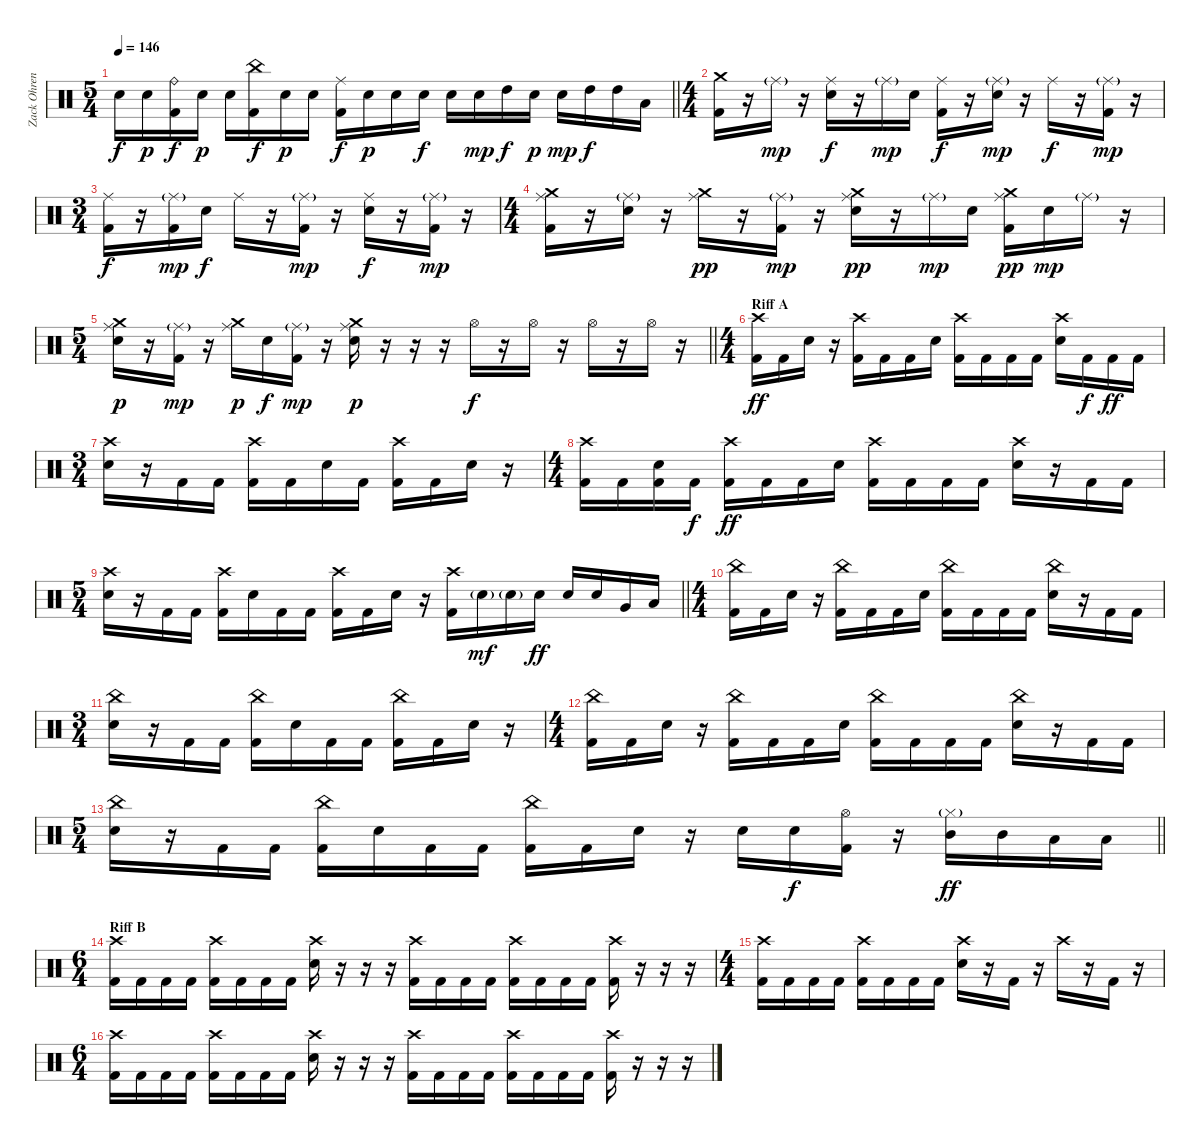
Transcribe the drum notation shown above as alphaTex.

\track ("Zack Ohren" "Zack Ohren") {instrument percussion}
\staff {score}
\articulation defaults
\ts (5 4)
\tempo 146
\clef neutral
\barLineRight lightlight
\ks c "Electric Snare (hit)".16{dy f} "Electric Snare (hit)".16{dy p}
("Kick (hit) 2" "Ride (bell)").16{dy f} "Electric Snare (hit)".16{dy p} "Electric Snare (hit)".16 ("Kick (hit) 2" "China (hit)").16{dy f} "Electric Snare (hit)".16{dy p} "Electric Snare (hit)".16 ("Kick (hit) 2" "Ride (middle)").16{dy f} "Electric Snare (hit)".16{dy p} "Electric Snare (hit)".16 "Electric Snare (hit)".16{dy f} "Electric Snare (hit)".16 "Electric Snare (hit)".16{dy mp} "High Tom (hit)".16{dy f} "Electric Snare (hit)".16{dy p} "Electric Snare (hit)".16{dy mp} "High Tom (hit)".16{dy f} "High Tom (hit)".16 "Low Tom (hit)".16 |
\ts (4 4)
("Kick (hit) 2" "Crash medium (hit)").16 r.16 "Ride (middle)"{g}.16{dy mp} r.16 ("Electric Snare (hit)" "Ride (middle)").16{dy f} r.16 "Ride (middle)"{g}.16{dy mp} "Electric Snare (hit)".16 ("Kick (hit) 2" "Ride (middle)").16{dy f} r.16 ("Electric Snare (hit)" "Ride (middle)"{g}).16{dy mp} r.16 "Ride (middle)".16{dy f} r.16 ("Kick (hit) 2" "Ride (middle)"{g}).16{dy mp} r.16 |
\ts (3 4)
("Kick (hit) 2" "Ride (middle)").16{dy f} r.16 ("Kick (hit) 2" "Ride (middle)"{g}).16{dy mp} "Electric Snare (hit)".16{dy f} "Ride (middle)".16 r.16 ("Kick (hit) 2" "Ride (middle)"{g}).16{dy mp} r.16 ("Electric Snare (hit)" "Ride (middle)").16{dy f} r.16 ("Kick (hit) 2" "Ride (middle)"{g}).16{dy mp} r.16 |
\ts (4 4)
("Kick (hit) 2" "Ride (middle)" "Crash medium (hit)").16 r.16 ("Electric Snare (hit)" "Ride (middle)"{g}).16 r.16 ("Ride (middle)" "Crash medium (hit)").16{dy pp} r.16 ("Kick (hit) 2" "Ride (middle)"{g}).16{dy mp} r.16 ("Electric Snare (hit)" "Ride (middle)" "Crash medium (hit)").16{dy pp} r.16 "Ride (middle)"{g}.16{dy mp} "Electric Snare (hit)".16 ("Kick (hit) 2" "Ride (middle)" "Crash medium (hit)").16{dy pp} "Electric Snare (hit)".16{dy mp} "Ride (middle)"{g}.16 r.16 |
\ts (5 4)
\barLineRight lightlight
("Electric Snare (hit)" "Ride (middle)" "Crash medium (hit)").16{dy p} r.16 ("Kick (hit) 2" "Ride (middle)"{g}).16{dy mp} r.16 ("Ride (middle)" "Crash medium (hit)").16{dy p} "Electric Snare (hit)".16{dy f} ("Kick (hit) 2" "Ride (middle)"{g}).16{dy mp} r.16 ("Electric Snare (hit)" "Ride (middle)" "Crash medium (hit)").16{dy p} r.16 r.16 r.16 "Hi-Hat (open)".16{dy f} r.16 "Hi-Hat (open)".16 r.16 "Hi-Hat (open)".16 r.16 "Hi-Hat (open)".16 r.16 |
\ts (4 4)
\section ("" "Riff A")
("Crash high (hit)" "Kick (hit) 2").16{dy ff} "Kick (hit) 2".16 "Electric Snare (hit)".16 r.16 ("Crash high (hit)" "Kick (hit) 2").16 "Kick (hit) 2".16 "Kick (hit) 2".16 "Electric Snare (hit)".16 ("Crash high (hit)" "Kick (hit) 2").16 "Kick (hit) 2".16 "Kick (hit) 2".16 "Kick (hit) 2".16 ("Crash high (hit)" "Electric Snare (hit)").16 "Kick (hit) 2".16{dy f} "Kick (hit) 2".16{dy ff} "Kick (hit) 2".16 |
\ts (3 4)
("Crash high (hit)" "Electric Snare (hit)").16 r.16 "Kick (hit) 2".16 "Kick (hit) 2".16 ("Crash high (hit)" "Kick (hit) 2").16 "Kick (hit) 2".16 "Electric Snare (hit)".16 "Kick (hit) 2".16 ("Crash high (hit)" "Kick (hit) 2").16 "Kick (hit) 2".16 "Electric Snare (hit)".16 r.16 |
\ts (4 4)
("Crash high (hit)" "Kick (hit) 2").16 "Kick (hit) 2".16 ("Kick (hit) 2" "Electric Snare (hit)").16 "Kick (hit) 2".16{dy f} ("Crash high (hit)" "Kick (hit) 2").16{dy ff} "Kick (hit) 2".16 "Kick (hit) 2".16 "Electric Snare (hit)".16 ("Crash high (hit)" "Kick (hit) 2").16 "Kick (hit) 2".16 "Kick (hit) 2".16 "Kick (hit) 2".16 ("Crash high (hit)" "Electric Snare (hit)").16 r.16 "Kick (hit) 2".16 "Kick (hit) 2".16 |
\ts (5 4)
\barLineRight lightlight
("Crash high (hit)" "Electric Snare (hit)").16 r.16 "Kick (hit) 2".16 "Kick (hit) 2".16 ("Crash high (hit)" "Kick (hit) 2").16 "Electric Snare (hit)".16 "Kick (hit) 2".16 "Kick (hit) 2".16 ("Crash high (hit)" "Kick (hit) 2").16 "Kick (hit) 2".16 "Electric Snare (hit)".16 r.16 ("Crash high (hit)" "Kick (hit) 2").16 "Electric Snare (hit)"{g}.16{dy mf} "Electric Snare (hit)"{g}.16 "Electric Snare (hit)".16{dy ff} "Electric Snare (hit)".16 "Electric Snare (hit)".16 "Very Low Tom (hit)".16 "Low Floor Tom (hit)".16 |
\ts (4 4)
("China (hit)" "Kick (hit) 2").16 "Kick (hit) 2".16 "Electric Snare (hit)".16 r.16 ("China (hit)" "Kick (hit) 2").16 "Kick (hit) 2".16 "Kick (hit) 2".16 "Electric Snare (hit)".16 ("China (hit)" "Kick (hit) 2").16 "Kick (hit) 2".16 "Kick (hit) 2".16 "Kick (hit) 2".16 ("China (hit)" "Electric Snare (hit)").16 r.16 "Kick (hit) 2".16 "Kick (hit) 2".16 |
\ts (3 4)
("China (hit)" "Electric Snare (hit)").16 r.16 "Kick (hit) 2".16 "Kick (hit) 2".16 ("China (hit)" "Kick (hit) 2").16 "Electric Snare (hit)".16 "Kick (hit) 2".16 "Kick (hit) 2".16 ("China (hit)" "Kick (hit) 2").16 "Kick (hit) 2".16 "Electric Snare (hit)".16 r.16 |
\ts (4 4)
("China (hit)" "Kick (hit) 2").16 "Kick (hit) 2".16 "Electric Snare (hit)".16 r.16 ("China (hit)" "Kick (hit) 2").16 "Kick (hit) 2".16 "Kick (hit) 2".16 "Electric Snare (hit)".16 ("China (hit)" "Kick (hit) 2").16 "Kick (hit) 2".16 "Kick (hit) 2".16 "Kick (hit) 2".16 ("China (hit)" "Electric Snare (hit)").16 r.16 "Kick (hit) 2".16 "Kick (hit) 2".16 |
\ts (5 4)
\barLineRight lightlight
("China (hit)" "Electric Snare (hit)").16 r.16 "Kick (hit) 2".16 "Kick (hit) 2".16 ("China (hit)" "Kick (hit) 2").16 "Electric Snare (hit)".16 "Kick (hit) 2".16 "Kick (hit) 2".16 ("China (hit)" "Kick (hit) 2").16 "Kick (hit) 2".16 "Electric Snare (hit)".16 r.16 "Electric Snare (hit)".16 "Electric Snare (hit)".16{dy f} ("Hi-Hat (open)" "Kick (hit) 2").16 r.16 ("Hi-Hat (closed)"{g} "Mid Tom (hit)").16{dy ff} "Mid Tom (hit)".16 "Low Tom (hit)".16 "Low Tom (hit)".16 |
\ts (6 4)
\section ("" "Riff B")
("Crash high (hit)" "Kick (hit) 2").16 "Kick (hit) 2".16 "Kick (hit) 2".16 "Kick (hit) 2".16 ("Crash high (hit)" "Kick (hit) 2").16 "Kick (hit) 2".16 "Kick (hit) 2".16 "Kick (hit) 2".16 ("Crash high (hit)" "Electric Snare (hit)").16 r.16 r.16 r.16 ("Crash high (hit)" "Kick (hit) 2").16 "Kick (hit) 2".16 "Kick (hit) 2".16 "Kick (hit) 2".16 ("Crash high (hit)" "Kick (hit) 2").16 "Kick (hit) 2".16 "Kick (hit) 2".16 "Kick (hit) 2".16 ("Crash high (hit)" "Kick (hit) 2").16 r.16 r.16 r.16 |
\ts (4 4)
("Crash high (hit)" "Kick (hit) 2").16 "Kick (hit) 2".16 "Kick (hit) 2".16 "Kick (hit) 2".16 ("Crash high (hit)" "Kick (hit) 2").16 "Kick (hit) 2".16 "Kick (hit) 2".16 "Kick (hit) 2".16 ("Crash high (hit)" "Electric Snare (hit)").16 r.16 "Kick (hit) 2".16 r.16 "Crash high (hit)".16 r.16 "Kick (hit) 2".16 r.16 |
\ts (6 4)
("Crash high (hit)" "Kick (hit) 2").16 "Kick (hit) 2".16 "Kick (hit) 2".16 "Kick (hit) 2".16 ("Crash high (hit)" "Kick (hit) 2").16 "Kick (hit) 2".16 "Kick (hit) 2".16 "Kick (hit) 2".16 ("Crash high (hit)" "Electric Snare (hit)").16 r.16 r.16 r.16 ("Crash high (hit)" "Kick (hit) 2").16 "Kick (hit) 2".16 "Kick (hit) 2".16 "Kick (hit) 2".16 ("Crash high (hit)" "Kick (hit) 2").16 "Kick (hit) 2".16 "Kick (hit) 2".16 "Kick (hit) 2".16 ("Crash high (hit)" "Kick (hit) 2").16 r.16 r.16 r.16
